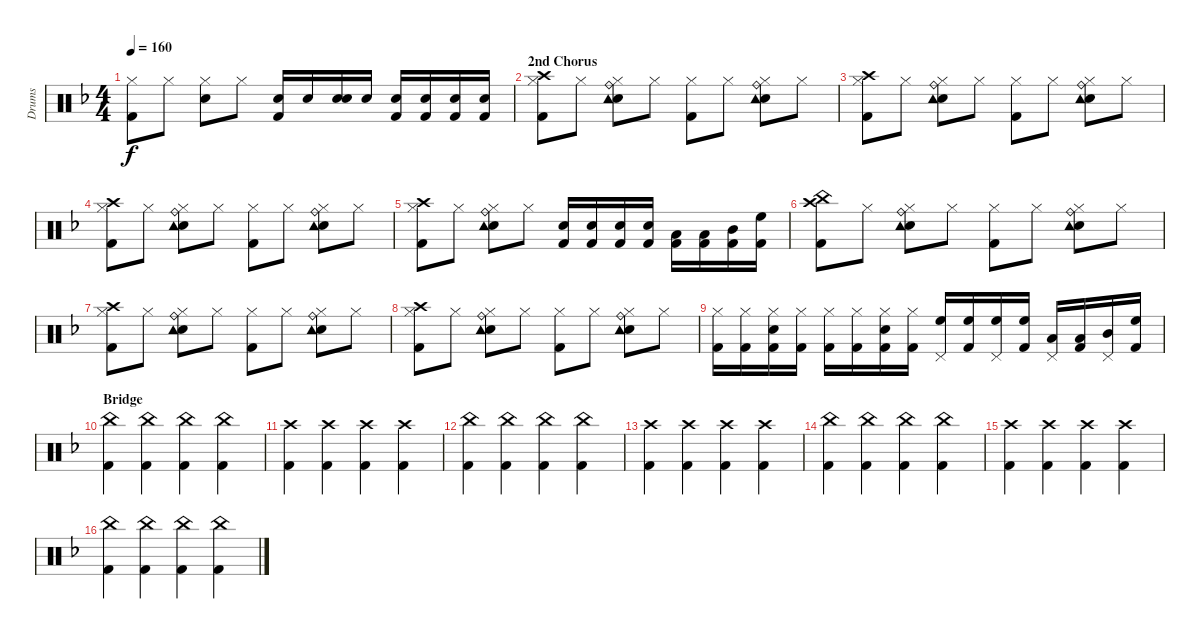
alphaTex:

\track ("Drums" "Drums") {instrument percussion}
\staff {score}
\articulation defaults
\ts (4 4)
\tempo 160
\clef neutral
\ks dminor
("Hi-Hat (closed)" "Kick (hit) 2").8{dy f} "Hi-Hat (closed)".8 ("Hi-Hat (closed)" "Electric Snare (hit)").8 "Hi-Hat (closed)".8 ("Snare (hit) 2" "Kick (hit) 2").16 "Snare (hit) 2".16 ("Snare (hit) 2" "Electric Snare (hit)").16 "Snare (hit) 2".16 ("Snare (hit) 2" "Kick (hit) 2").16 ("Snare (hit) 2" "Kick (hit) 2").16 ("Snare (hit) 2" "Kick (hit) 2").16 ("Snare (hit) 2" "Kick (hit) 2").16 |
\section ("" "2nd Chorus")
("Hi-Hat (closed)" "Crash high (hit)" "Kick (hit) 2").8 "Hi-Hat (closed)".8 ("Hi-Hat (closed)" "Electric Snare (hit)" "Tambourine (hit)" "Ride (bell)").8 "Hi-Hat (closed)".8 ("Hi-Hat (closed)" "Kick (hit) 2").8 "Hi-Hat (closed)".8 ("Hi-Hat (closed)" "Electric Snare (hit)" "Tambourine (hit)" "Ride (bell)").8 "Hi-Hat (closed)".8 |
("Hi-Hat (closed)" "Crash high (hit)" "Kick (hit) 2").8 "Hi-Hat (closed)".8 ("Hi-Hat (closed)" "Electric Snare (hit)" "Tambourine (hit)" "Ride (bell)").8 "Hi-Hat (closed)".8 ("Hi-Hat (closed)" "Kick (hit) 2").8 "Hi-Hat (closed)".8 ("Hi-Hat (closed)" "Electric Snare (hit)" "Tambourine (hit)" "Ride (bell)").8 "Hi-Hat (closed)".8 |
("Hi-Hat (closed)" "Crash high (hit)" "Kick (hit) 2").8 "Hi-Hat (closed)".8 ("Hi-Hat (closed)" "Electric Snare (hit)" "Tambourine (hit)" "Ride (bell)").8 "Hi-Hat (closed)".8 ("Hi-Hat (closed)" "Kick (hit) 2").8 "Hi-Hat (closed)".8 ("Hi-Hat (closed)" "Electric Snare (hit)" "Tambourine (hit)" "Ride (bell)").8 "Hi-Hat (closed)".8 |
("Hi-Hat (closed)" "Crash high (hit)" "Kick (hit) 2").8 "Hi-Hat (closed)".8 ("Hi-Hat (closed)" "Electric Snare (hit)" "Tambourine (hit)" "Ride (bell)").8 "Hi-Hat (closed)".8 ("Snare (hit) 2" "Kick (hit) 2").16 ("Snare (hit) 2" "Kick (hit) 2").16 ("Snare (hit) 2" "Kick (hit) 2").16 ("Snare (hit) 2" "Kick (hit) 2").16 ("Low Floor Tom (hit)" "Kick (hit) 2").16 ("Low Tom (hit)" "Kick (hit) 2").16 ("Mid Tom (hit)" "Kick (hit) 2").16 ("High Floor Tom (hit)" "Kick (hit) 2").16 |
("China (hit)" "Crash high (hit)" "Kick (hit) 2").8 "Hi-Hat (closed)".8 ("Hi-Hat (closed)" "Electric Snare (hit)" "Tambourine (hit)" "Ride (bell)").8 "Hi-Hat (closed)".8 ("Hi-Hat (closed)" "Kick (hit) 2").8 "Hi-Hat (closed)".8 ("Hi-Hat (closed)" "Electric Snare (hit)" "Tambourine (hit)" "Ride (bell)").8 "Hi-Hat (closed)".8 |
("Hi-Hat (closed)" "Crash high (hit)" "Kick (hit) 2").8 "Hi-Hat (closed)".8 ("Hi-Hat (closed)" "Electric Snare (hit)" "Tambourine (hit)" "Ride (bell)").8 "Hi-Hat (closed)".8 ("Hi-Hat (closed)" "Kick (hit) 2").8 "Hi-Hat (closed)".8 ("Hi-Hat (closed)" "Electric Snare (hit)" "Tambourine (hit)" "Ride (bell)").8 "Hi-Hat (closed)".8 |
("Hi-Hat (closed)" "Crash high (hit)" "Kick (hit) 2").8 "Hi-Hat (closed)".8 ("Hi-Hat (closed)" "Electric Snare (hit)" "Tambourine (hit)" "Ride (bell)").8 "Hi-Hat (closed)".8 ("Hi-Hat (closed)" "Kick (hit) 2").8 "Hi-Hat (closed)".8 ("Hi-Hat (closed)" "Electric Snare (hit)" "Tambourine (hit)" "Ride (bell)").8 "Hi-Hat (closed)".8 |
("Hi-Hat (closed)" "Kick (hit) 2").16 ("Hi-Hat (closed)" "Kick (hit) 2").16 ("Hi-Hat (closed)" "Electric Snare (hit)" "Kick (hit) 2").16 ("Hi-Hat (closed)" "Kick (hit) 2").16 ("Hi-Hat (closed)" "Kick (hit) 2").16 ("Hi-Hat (closed)" "Kick (hit) 2").16 ("Hi-Hat (closed)" "Electric Snare (hit)" "Kick (hit) 2").16 ("Hi-Hat (closed)" "Kick (hit) 2").16 ("High Floor Tom (hit)" "Pedal Hi-Hat (hit)").16 ("High Floor Tom (hit)" "Kick (hit) 2").16 ("High Floor Tom (hit)" "Pedal Hi-Hat (hit)").16 ("High Floor Tom (hit)" "Kick (hit) 2").16 ("Low Tom (hit)" "Pedal Hi-Hat (hit)").16 ("Low Floor Tom (hit)" "Kick (hit) 2").16 ("Mid Tom (hit)" "Pedal Hi-Hat (hit)").16 ("High Floor Tom (hit)" "Kick (hit) 2").16 |
\section ("" "Bridge")
("China (hit)" "Kick (hit) 2").4 ("China (hit)" "Kick (hit) 2").4 ("China (hit)" "Kick (hit) 2").4 ("China (hit)" "Kick (hit) 2").4 |
("Crash high (hit)" "Kick (hit) 2").4 ("Crash high (hit)" "Kick (hit) 2").4 ("Crash high (hit)" "Kick (hit) 2").4 ("Crash high (hit)" "Kick (hit) 2").4 |
("China (hit)" "Kick (hit) 2").4 ("China (hit)" "Kick (hit) 2").4 ("China (hit)" "Kick (hit) 2").4 ("China (hit)" "Kick (hit) 2").4 |
("Crash high (hit)" "Kick (hit) 2").4 ("Crash high (hit)" "Kick (hit) 2").4 ("Crash high (hit)" "Kick (hit) 2").4 ("Crash high (hit)" "Kick (hit) 2").4 |
("China (hit)" "Kick (hit) 2").4 ("China (hit)" "Kick (hit) 2").4 ("China (hit)" "Kick (hit) 2").4 ("China (hit)" "Kick (hit) 2").4 |
("Crash high (hit)" "Kick (hit) 2").4 ("Crash high (hit)" "Kick (hit) 2").4 ("Crash high (hit)" "Kick (hit) 2").4 ("Crash high (hit)" "Kick (hit) 2").4 |
("China (hit)" "Kick (hit) 2").4 ("China (hit)" "Kick (hit) 2").4 ("China (hit)" "Kick (hit) 2").4 ("China (hit)" "Kick (hit) 2").4
